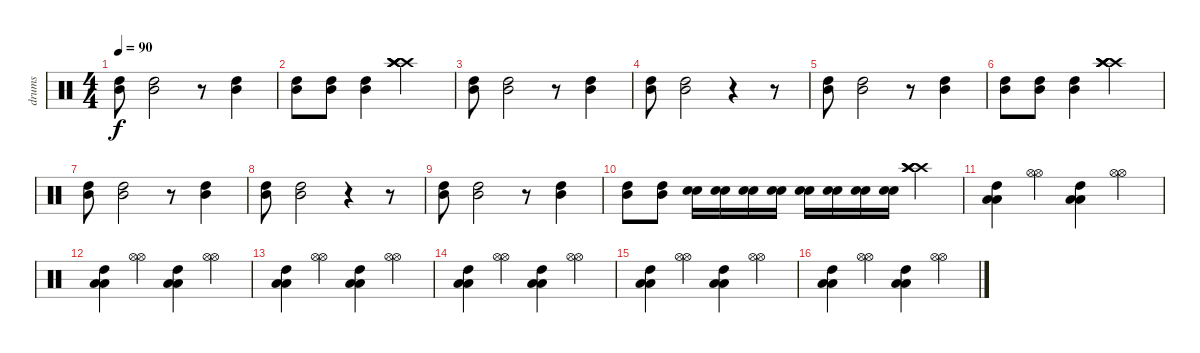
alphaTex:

\track ("drums" "drums") {instrument percussion}
\staff {score}
\articulation defaults
\ts (4 4)
\tempo 90
\clef neutral
\ks c
("Mid Tom (hit)" "High Tom (hit)").8{dy f} ("Mid Tom (hit)" "High Tom (hit)").2 r.8 ("Mid Tom (hit)" "High Tom (hit)").4 |
("Mid Tom (hit)" "High Tom (hit)").8 ("Mid Tom (hit)" "High Tom (hit)").8 ("Mid Tom (hit)" "High Tom (hit)").4 ("Crash high (hit)" "Crash high (hit)" "Crash high (hit)" "Crash high (hit)").2 |
("Mid Tom (hit)" "High Tom (hit)").8 ("Mid Tom (hit)" "High Tom (hit)").2 r.8 ("Mid Tom (hit)" "High Tom (hit)").4 |
("Mid Tom (hit)" "High Tom (hit)").8 ("Mid Tom (hit)" "High Tom (hit)").2 r.4 r.8 |
("Mid Tom (hit)" "High Tom (hit)").8 ("Mid Tom (hit)" "High Tom (hit)").2 r.8 ("Mid Tom (hit)" "High Tom (hit)").4 |
("Mid Tom (hit)" "High Tom (hit)").8 ("Mid Tom (hit)" "High Tom (hit)").8 ("Mid Tom (hit)" "High Tom (hit)").4 ("Crash high (hit)" "Crash high (hit)" "Crash high (hit)" "Crash high (hit)").2 |
("Mid Tom (hit)" "High Tom (hit)").8 ("Mid Tom (hit)" "High Tom (hit)").2 r.8 ("Mid Tom (hit)" "High Tom (hit)").4 |
("Mid Tom (hit)" "High Tom (hit)").8 ("Mid Tom (hit)" "High Tom (hit)").2 r.4 r.8 |
("Mid Tom (hit)" "High Tom (hit)").8 ("Mid Tom (hit)" "High Tom (hit)").2 r.8 ("Mid Tom (hit)" "High Tom (hit)").4 |
("Mid Tom (hit)" "High Tom (hit)").8 ("Mid Tom (hit)" "High Tom (hit)").8 ("Electric Snare (hit)" "Electric Snare (hit)").16 ("Electric Snare (hit)" "Electric Snare (hit)").16 ("Electric Snare (hit)" "Electric Snare (hit)").16 ("Electric Snare (hit)" "Electric Snare (hit)").16 ("Electric Snare (hit)" "Electric Snare (hit)").16 ("Electric Snare (hit)" "Electric Snare (hit)").16 ("Electric Snare (hit)" "Electric Snare (hit)").16 ("Electric Snare (hit)" "Electric Snare (hit)").16 ("Crash high (hit)" "Crash high (hit)" "Crash high (hit)" "Crash high (hit)").4 |
("High Tom (hit)" "Low Floor Tom (hit)" "Low Floor Tom (hit)").4 ("Hi-Hat (open)" "Hi-Hat (open)").4 ("High Tom (hit)" "Low Floor Tom (hit)" "Low Floor Tom (hit)").4 ("Hi-Hat (open)" "Hi-Hat (open)").4 |
("High Tom (hit)" "Low Floor Tom (hit)" "Low Floor Tom (hit)").4 ("Hi-Hat (open)" "Hi-Hat (open)").4 ("High Tom (hit)" "Low Floor Tom (hit)" "Low Floor Tom (hit)").4 ("Hi-Hat (open)" "Hi-Hat (open)").4 |
("High Tom (hit)" "Low Floor Tom (hit)" "Low Floor Tom (hit)").4 ("Hi-Hat (open)" "Hi-Hat (open)").4 ("High Tom (hit)" "Low Floor Tom (hit)" "Low Floor Tom (hit)").4 ("Hi-Hat (open)" "Hi-Hat (open)").4 |
("High Tom (hit)" "Low Floor Tom (hit)" "Low Floor Tom (hit)").4 ("Hi-Hat (open)" "Hi-Hat (open)").4 ("High Tom (hit)" "Low Floor Tom (hit)" "Low Floor Tom (hit)").4 ("Hi-Hat (open)" "Hi-Hat (open)").4 |
("High Tom (hit)" "Low Floor Tom (hit)" "Low Floor Tom (hit)").4 ("Hi-Hat (open)" "Hi-Hat (open)").4 ("High Tom (hit)" "Low Floor Tom (hit)" "Low Floor Tom (hit)").4 ("Hi-Hat (open)" "Hi-Hat (open)").4 |
("High Tom (hit)" "Low Floor Tom (hit)" "Low Floor Tom (hit)").4 ("Hi-Hat (open)" "Hi-Hat (open)").4 ("High Tom (hit)" "Low Floor Tom (hit)" "Low Floor Tom (hit)").4 ("Hi-Hat (open)" "Hi-Hat (open)").4
